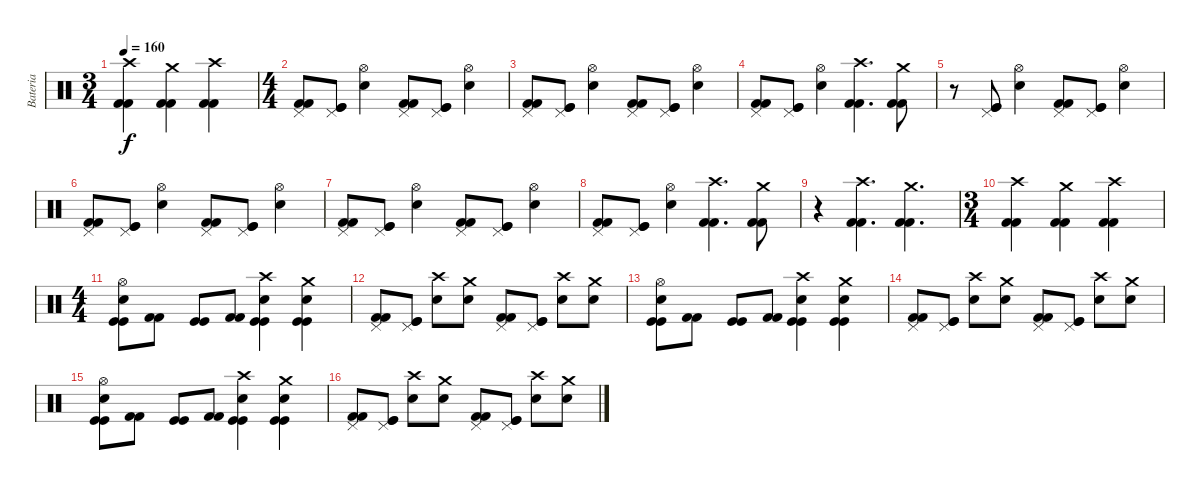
\track ("Bateria" "Bateria") {instrument percussion}
\staff {score}
\articulation defaults
\ts (3 4)
\tempo 160
\clef neutral
\ks c
("Kick (hit) 2" "Kick (hit) 2" "Crash high (hit)").4{dy f} ("Kick (hit) 2" "Kick (hit) 2" "Crash medium (hit)").4 ("Kick (hit) 2" "Kick (hit) 2" "Crash high (hit)").4 |
\ts (4 4)
("Kick (hit) 2" "Kick (hit) 2" "Pedal Hi-Hat (hit)").8 ("Kick (hit)" "Kick (hit)" "Pedal Hi-Hat (hit)").8 ("Snare (hit) 2" "Hi-Hat (open)").4 ("Kick (hit) 2" "Kick (hit) 2" "Pedal Hi-Hat (hit)").8 ("Kick (hit)" "Kick (hit)" "Pedal Hi-Hat (hit)").8 ("Snare (hit) 2" "Hi-Hat (open)").4 |
("Kick (hit) 2" "Kick (hit) 2" "Pedal Hi-Hat (hit)").8 ("Kick (hit)" "Kick (hit)" "Pedal Hi-Hat (hit)").8 ("Snare (hit) 2" "Hi-Hat (open)").4 ("Kick (hit) 2" "Kick (hit) 2" "Pedal Hi-Hat (hit)").8 ("Kick (hit)" "Kick (hit)" "Pedal Hi-Hat (hit)").8 ("Snare (hit) 2" "Hi-Hat (open)").4 |
("Kick (hit) 2" "Kick (hit) 2" "Pedal Hi-Hat (hit)").8 ("Kick (hit)" "Kick (hit)" "Pedal Hi-Hat (hit)").8 ("Snare (hit) 2" "Hi-Hat (open)").4 ("Kick (hit) 2" "Kick (hit) 2" "Crash high (hit)").4{d} ("Kick (hit) 2" "Kick (hit) 2" "Crash medium (hit)").8 |
r.8 ("Kick (hit)" "Kick (hit)" "Pedal Hi-Hat (hit)").8 ("Snare (hit) 2" "Hi-Hat (open)").4 ("Kick (hit) 2" "Kick (hit) 2" "Pedal Hi-Hat (hit)").8 ("Kick (hit)" "Kick (hit)" "Pedal Hi-Hat (hit)").8 ("Snare (hit) 2" "Hi-Hat (open)").4 |
("Kick (hit) 2" "Kick (hit) 2" "Pedal Hi-Hat (hit)").8 ("Kick (hit)" "Kick (hit)" "Pedal Hi-Hat (hit)").8 ("Snare (hit) 2" "Hi-Hat (open)").4 ("Kick (hit) 2" "Kick (hit) 2" "Pedal Hi-Hat (hit)").8 ("Kick (hit)" "Kick (hit)" "Pedal Hi-Hat (hit)").8 ("Snare (hit) 2" "Hi-Hat (open)").4 |
("Kick (hit) 2" "Kick (hit) 2" "Pedal Hi-Hat (hit)").8 ("Kick (hit)" "Kick (hit)" "Pedal Hi-Hat (hit)").8 ("Snare (hit) 2" "Hi-Hat (open)").4 ("Kick (hit) 2" "Kick (hit) 2" "Pedal Hi-Hat (hit)").8 ("Kick (hit)" "Kick (hit)" "Pedal Hi-Hat (hit)").8 ("Snare (hit) 2" "Hi-Hat (open)").4 |
("Kick (hit) 2" "Kick (hit) 2" "Pedal Hi-Hat (hit)").8 ("Kick (hit)" "Kick (hit)" "Pedal Hi-Hat (hit)").8 ("Snare (hit) 2" "Hi-Hat (open)").4 ("Kick (hit) 2" "Kick (hit) 2" "Crash high (hit)").4{d} ("Kick (hit) 2" "Kick (hit) 2" "Crash medium (hit)").8 |
r.4 ("Kick (hit) 2" "Kick (hit) 2" "Crash high (hit)").4{d} ("Kick (hit) 2" "Kick (hit) 2" "Crash medium (hit)").4{d} |
\ts (3 4)
("Kick (hit) 2" "Kick (hit) 2" "Crash high (hit)").4 ("Kick (hit) 2" "Kick (hit) 2" "Crash medium (hit)").4 ("Kick (hit) 2" "Kick (hit) 2" "Crash high (hit)").4 |
\ts (4 4)
("Kick (hit)" "Kick (hit)" "Snare (hit) 2" "Hi-Hat (open)").8 ("Kick (hit) 2" "Kick (hit) 2").8 ("Kick (hit)" "Kick (hit)").8 ("Kick (hit) 2" "Kick (hit) 2").8 ("Kick (hit)" "Kick (hit)" "Snare (hit) 2" "Crash high (hit)").4 ("Kick (hit)" "Kick (hit)" "Snare (hit) 2" "Crash medium (hit)").4 |
("Kick (hit) 2" "Kick (hit) 2" "Pedal Hi-Hat (hit)").8 ("Kick (hit)" "Kick (hit)" "Pedal Hi-Hat (hit)").8 ("Snare (hit) 2" "Crash high (hit)").8 ("Snare (hit) 2" "Crash medium (hit)").8 ("Kick (hit) 2" "Kick (hit) 2" "Pedal Hi-Hat (hit)").8 ("Kick (hit)" "Kick (hit)" "Pedal Hi-Hat (hit)").8 ("Snare (hit) 2" "Crash high (hit)").8 ("Snare (hit) 2" "Crash medium (hit)").8 |
("Kick (hit)" "Kick (hit)" "Snare (hit) 2" "Hi-Hat (open)").8 ("Kick (hit) 2" "Kick (hit) 2").8 ("Kick (hit)" "Kick (hit)").8 ("Kick (hit) 2" "Kick (hit) 2").8 ("Kick (hit)" "Kick (hit)" "Snare (hit) 2" "Crash high (hit)").4 ("Kick (hit)" "Kick (hit)" "Snare (hit) 2" "Crash medium (hit)").4 |
("Kick (hit) 2" "Kick (hit) 2" "Pedal Hi-Hat (hit)").8 ("Kick (hit)" "Kick (hit)" "Pedal Hi-Hat (hit)").8 ("Snare (hit) 2" "Crash high (hit)").8 ("Snare (hit) 2" "Crash medium (hit)").8 ("Kick (hit) 2" "Kick (hit) 2" "Pedal Hi-Hat (hit)").8 ("Kick (hit)" "Kick (hit)" "Pedal Hi-Hat (hit)").8 ("Snare (hit) 2" "Crash high (hit)").8 ("Snare (hit) 2" "Crash medium (hit)").8 |
("Kick (hit)" "Kick (hit)" "Snare (hit) 2" "Hi-Hat (open)").8 ("Kick (hit) 2" "Kick (hit) 2").8 ("Kick (hit)" "Kick (hit)").8 ("Kick (hit) 2" "Kick (hit) 2").8 ("Kick (hit)" "Kick (hit)" "Snare (hit) 2" "Crash high (hit)").4 ("Kick (hit)" "Kick (hit)" "Snare (hit) 2" "Crash medium (hit)").4 |
("Kick (hit) 2" "Kick (hit) 2" "Pedal Hi-Hat (hit)").8 ("Kick (hit)" "Kick (hit)" "Pedal Hi-Hat (hit)").8 ("Snare (hit) 2" "Crash high (hit)").8 ("Snare (hit) 2" "Crash medium (hit)").8 ("Kick (hit) 2" "Kick (hit) 2" "Pedal Hi-Hat (hit)").8 ("Kick (hit)" "Kick (hit)" "Pedal Hi-Hat (hit)").8 ("Snare (hit) 2" "Crash high (hit)").8 ("Snare (hit) 2" "Crash medium (hit)").8
